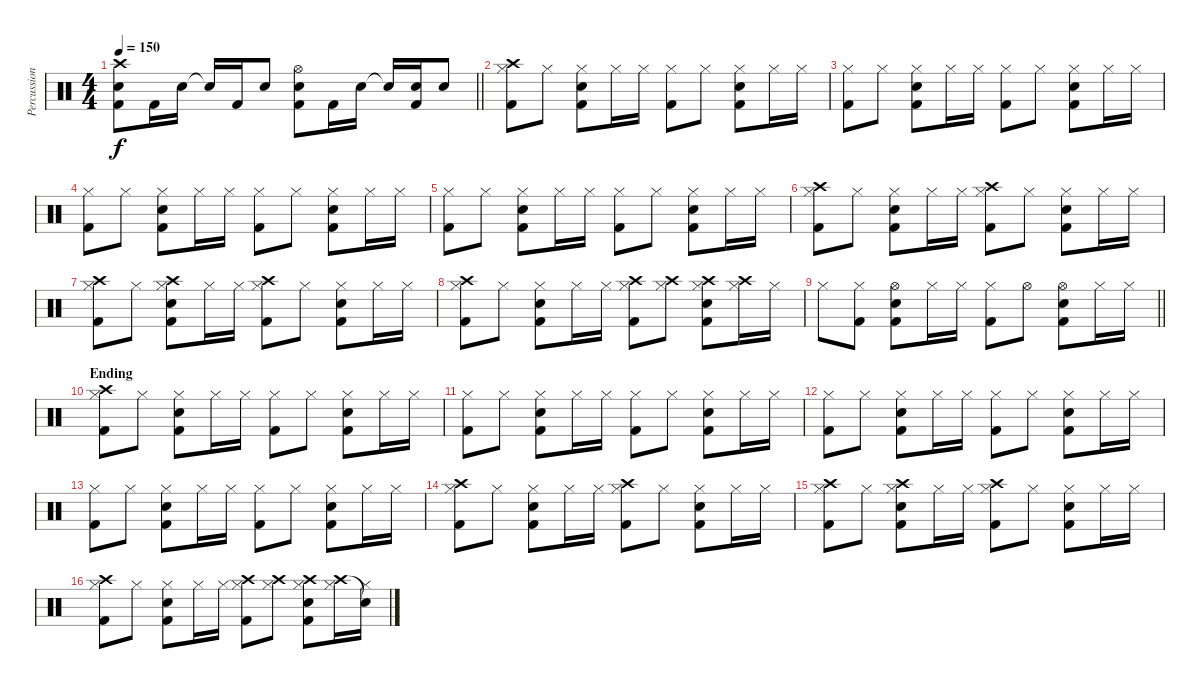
\track ("Percussion" "Percussion") {instrument percussion}
\staff {score}
\articulation defaults
\ts (4 4)
\tempo 150
\clef neutral
\barLineRight lightlight
\ks c
("Crash high (hit)" "Snare (hit) 2" "Kick (hit) 2").8{dy f} "Kick (hit) 2".16 "Snare (hit) 2".16 "Snare (hit)"{t}.16 "Kick (hit) 2".16 "Snare (hit) 2".8 ("Hi-Hat (open)" "Snare (hit) 2" "Kick (hit) 2").8 "Kick (hit) 2".16 "Snare (hit) 2".16 "Snare (hit) 2"{t}.16 ("Snare (hit) 2" "Kick (hit) 2").16 "Snare (hit) 2".8 |
("Hi-Hat (closed)" "Crash high (hit)" "Kick (hit) 2").8 "Hi-Hat (closed)".8 ("Hi-Hat (closed)" "Snare (hit) 2" "Kick (hit) 2").8 "Hi-Hat (closed)".16 "Hi-Hat (closed)".16 ("Hi-Hat (closed)" "Kick (hit) 2").8 "Hi-Hat (closed)".8 ("Hi-Hat (closed)" "Snare (hit) 2" "Kick (hit) 2").8 "Hi-Hat (closed)".16 "Hi-Hat (closed)".16 |
("Hi-Hat (closed)" "Kick (hit) 2").8 "Hi-Hat (closed)".8 ("Hi-Hat (closed)" "Snare (hit) 2" "Kick (hit) 2").8 "Hi-Hat (closed)".16 "Hi-Hat (closed)".16 ("Hi-Hat (closed)" "Kick (hit) 2").8 "Hi-Hat (closed)".8 ("Hi-Hat (closed)" "Snare (hit) 2" "Kick (hit) 2").8 "Hi-Hat (closed)".16 "Hi-Hat (closed)".16 |
("Hi-Hat (closed)" "Kick (hit) 2").8 "Hi-Hat (closed)".8 ("Hi-Hat (closed)" "Snare (hit) 2" "Kick (hit) 2").8 "Hi-Hat (closed)".16 "Hi-Hat (closed)".16 ("Hi-Hat (closed)" "Kick (hit) 2").8 "Hi-Hat (closed)".8 ("Hi-Hat (closed)" "Snare (hit) 2" "Kick (hit) 2").8 "Hi-Hat (closed)".16 "Hi-Hat (closed)".16 |
("Hi-Hat (closed)" "Kick (hit) 2").8 "Hi-Hat (closed)".8 ("Hi-Hat (closed)" "Snare (hit) 2" "Kick (hit) 2").8 "Hi-Hat (closed)".16 "Hi-Hat (closed)".16 ("Hi-Hat (closed)" "Kick (hit) 2").8 "Hi-Hat (closed)".8 ("Hi-Hat (closed)" "Snare (hit) 2" "Kick (hit) 2").8 "Hi-Hat (closed)".16 "Hi-Hat (closed)".16 |
("Hi-Hat (closed)" "Crash high (hit)" "Kick (hit) 2").8 "Hi-Hat (closed)".8 ("Hi-Hat (closed)" "Snare (hit) 2" "Kick (hit) 2").8 "Hi-Hat (closed)".16 "Hi-Hat (closed)".16 ("Hi-Hat (closed)" "Crash high (hit)" "Kick (hit) 2").8 "Hi-Hat (closed)".8 ("Hi-Hat (closed)" "Snare (hit) 2" "Kick (hit) 2").8 "Hi-Hat (closed)".16 "Hi-Hat (closed)".16 |
("Hi-Hat (closed)" "Crash high (hit)" "Kick (hit) 2").8 "Hi-Hat (closed)".8 ("Hi-Hat (closed)" "Snare (hit) 2" "Crash high (hit)" "Kick (hit) 2").8 "Hi-Hat (closed)".16 "Hi-Hat (closed)".16 ("Hi-Hat (closed)" "Crash high (hit)" "Kick (hit) 2").8 "Hi-Hat (closed)".8 ("Hi-Hat (closed)" "Snare (hit) 2" "Kick (hit) 2").8 "Hi-Hat (closed)".16 "Hi-Hat (closed)".16 |
("Hi-Hat (closed)" "Crash high (hit)" "Kick (hit) 2").8 "Hi-Hat (closed)".8 ("Hi-Hat (closed)" "Snare (hit) 2" "Kick (hit) 2").8 "Hi-Hat (closed)".16 "Hi-Hat (closed)".16 ("Hi-Hat (closed)" "Crash high (hit)" "Kick (hit) 2").8 ("Hi-Hat (closed)" "Crash high (hit)").8 ("Hi-Hat (closed)" "Snare (hit) 2" "Crash high (hit)" "Kick (hit) 2").8 ("Hi-Hat (closed)" "Crash high (hit)").16 "Hi-Hat (closed)".16 |
\barLineRight lightlight "Hi-Hat (closed)".8
("Hi-Hat (closed)" "Kick (hit) 2").8 ("Hi-Hat (open)" "Snare (hit) 2" "Kick (hit) 2").8 "Hi-Hat (closed)".16 "Hi-Hat (closed)".16 ("Hi-Hat (closed)" "Kick (hit) 2").8 "Hi-Hat (open)".8 ("Hi-Hat (open)" "Snare (hit) 2" "Kick (hit) 2").8 "Hi-Hat (closed)".16 "Hi-Hat (closed)".16 |
\section ("" "Ending")
("Hi-Hat (closed)" "Crash high (hit)" "Kick (hit) 2").8 "Hi-Hat (closed)".8 ("Hi-Hat (closed)" "Snare (hit) 2" "Kick (hit) 2").8 "Hi-Hat (closed)".16 "Hi-Hat (closed)".16 ("Hi-Hat (closed)" "Kick (hit) 2").8 "Hi-Hat (closed)".8 ("Hi-Hat (closed)" "Snare (hit) 2" "Kick (hit) 2").8 "Hi-Hat (closed)".16 "Hi-Hat (closed)".16 |
("Hi-Hat (closed)" "Kick (hit) 2").8 "Hi-Hat (closed)".8 ("Hi-Hat (closed)" "Snare (hit) 2" "Kick (hit) 2").8 "Hi-Hat (closed)".16 "Hi-Hat (closed)".16 ("Hi-Hat (closed)" "Kick (hit) 2").8 "Hi-Hat (closed)".8 ("Hi-Hat (closed)" "Snare (hit) 2" "Kick (hit) 2").8 "Hi-Hat (closed)".16 "Hi-Hat (closed)".16 |
("Hi-Hat (closed)" "Kick (hit) 2").8 "Hi-Hat (closed)".8 ("Hi-Hat (closed)" "Snare (hit) 2" "Kick (hit) 2").8 "Hi-Hat (closed)".16 "Hi-Hat (closed)".16 ("Hi-Hat (closed)" "Kick (hit) 2").8 "Hi-Hat (closed)".8 ("Hi-Hat (closed)" "Snare (hit) 2" "Kick (hit) 2").8 "Hi-Hat (closed)".16 "Hi-Hat (closed)".16 |
("Hi-Hat (closed)" "Kick (hit) 2").8 "Hi-Hat (closed)".8 ("Hi-Hat (closed)" "Snare (hit) 2" "Kick (hit) 2").8 "Hi-Hat (closed)".16 "Hi-Hat (closed)".16 ("Hi-Hat (closed)" "Kick (hit) 2").8 "Hi-Hat (closed)".8 ("Hi-Hat (closed)" "Snare (hit) 2" "Kick (hit) 2").8 "Hi-Hat (closed)".16 "Hi-Hat (closed)".16 |
("Hi-Hat (closed)" "Crash high (hit)" "Kick (hit) 2").8 "Hi-Hat (closed)".8 ("Hi-Hat (closed)" "Snare (hit) 2" "Kick (hit) 2").8 "Hi-Hat (closed)".16 "Hi-Hat (closed)".16 ("Hi-Hat (closed)" "Crash high (hit)" "Kick (hit) 2").8 "Hi-Hat (closed)".8 ("Hi-Hat (closed)" "Snare (hit) 2" "Kick (hit) 2").8 "Hi-Hat (closed)".16 "Hi-Hat (closed)".16 |
("Hi-Hat (closed)" "Crash high (hit)" "Kick (hit) 2").8 "Hi-Hat (closed)".8 ("Hi-Hat (closed)" "Snare (hit) 2" "Crash high (hit)" "Kick (hit) 2").8 "Hi-Hat (closed)".16 "Hi-Hat (closed)".16 ("Hi-Hat (closed)" "Crash high (hit)" "Kick (hit) 2").8 "Hi-Hat (closed)".8 ("Hi-Hat (closed)" "Snare (hit) 2" "Kick (hit) 2").8 "Hi-Hat (closed)".16 "Hi-Hat (closed)".16 |
("Hi-Hat (closed)" "Crash high (hit)" "Kick (hit) 2").8 "Hi-Hat (closed)".8 ("Hi-Hat (closed)" "Snare (hit) 2" "Kick (hit) 2").8 "Hi-Hat (closed)".16 "Hi-Hat (closed)".16 ("Hi-Hat (closed)" "Crash high (hit)" "Kick (hit) 2").8 ("Hi-Hat (closed)" "Crash high (hit)").8 ("Hi-Hat (closed)" "Snare (hit) 2" "Crash high (hit)" "Kick (hit) 2").8 ("Hi-Hat (closed)" "Crash high (hit)").16 ("Hi-Hat (closed)" "Snare (hit)"{t}).16
